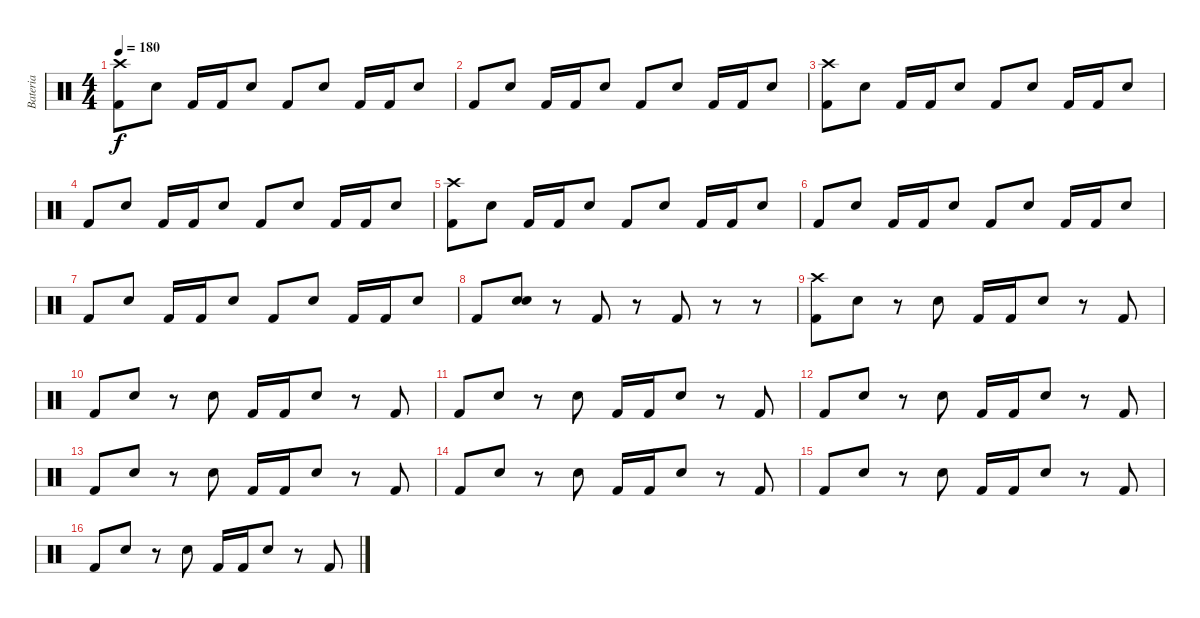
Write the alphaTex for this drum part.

\track ("Bateria" "Bateria") {instrument percussion}
\staff {score}
\articulation defaults
\ts (4 4)
\tempo 180
\clef neutral
\ks c
("Kick (hit) 2" "Crash high (hit)").8{dy f} "Electric Snare (hit)".8 "Kick (hit) 2".16 "Kick (hit) 2".16 "Electric Snare (hit)".8 "Kick (hit) 2".8 "Electric Snare (hit)".8 "Kick (hit) 2".16 "Kick (hit) 2".16 "Electric Snare (hit)".8 |
"Kick (hit) 2".8 "Electric Snare (hit)".8 "Kick (hit) 2".16 "Kick (hit) 2".16 "Electric Snare (hit)".8 "Kick (hit) 2".8 "Electric Snare (hit)".8 "Kick (hit) 2".16 "Kick (hit) 2".16 "Electric Snare (hit)".8 |
("Kick (hit) 2" "Crash high (hit)").8 "Electric Snare (hit)".8 "Kick (hit) 2".16 "Kick (hit) 2".16 "Electric Snare (hit)".8 "Kick (hit) 2".8 "Electric Snare (hit)".8 "Kick (hit) 2".16 "Kick (hit) 2".16 "Electric Snare (hit)".8 |
"Kick (hit) 2".8 "Electric Snare (hit)".8 "Kick (hit) 2".16 "Kick (hit) 2".16 "Electric Snare (hit)".8 "Kick (hit) 2".8 "Electric Snare (hit)".8 "Kick (hit) 2".16 "Kick (hit) 2".16 "Electric Snare (hit)".8 |
("Kick (hit) 2" "Crash high (hit)").8 "Electric Snare (hit)".8 "Kick (hit) 2".16 "Kick (hit) 2".16 "Electric Snare (hit)".8 "Kick (hit) 2".8 "Electric Snare (hit)".8 "Kick (hit) 2".16 "Kick (hit) 2".16 "Electric Snare (hit)".8 |
"Kick (hit) 2".8 "Electric Snare (hit)".8 "Kick (hit) 2".16 "Kick (hit) 2".16 "Electric Snare (hit)".8 "Kick (hit) 2".8 "Electric Snare (hit)".8 "Kick (hit) 2".16 "Kick (hit) 2".16 "Electric Snare (hit)".8 |
"Kick (hit) 2".8 "Electric Snare (hit)".8 "Kick (hit) 2".16 "Kick (hit) 2".16 "Electric Snare (hit)".8 "Kick (hit) 2".8 "Electric Snare (hit)".8 "Kick (hit) 2".16 "Kick (hit) 2".16 "Electric Snare (hit)".8 |
"Kick (hit) 2".8 ("Electric Snare (hit)" "Electric Snare (hit)").8 r.8 "Kick (hit) 2".8 r.8 "Kick (hit) 2".8 r.8 r.8 |
("Kick (hit) 2" "Crash high (hit)").8 "Electric Snare (hit)".8 r.8 "Electric Snare (hit)".8 "Kick (hit) 2".16 "Kick (hit) 2".16 "Electric Snare (hit)".8 r.8 "Kick (hit) 2".8 |
"Kick (hit) 2".8 "Electric Snare (hit)".8 r.8 "Electric Snare (hit)".8 "Kick (hit) 2".16 "Kick (hit) 2".16 "Electric Snare (hit)".8 r.8 "Kick (hit) 2".8 |
"Kick (hit) 2".8 "Electric Snare (hit)".8 r.8 "Electric Snare (hit)".8 "Kick (hit) 2".16 "Kick (hit) 2".16 "Electric Snare (hit)".8 r.8 "Kick (hit) 2".8 |
"Kick (hit) 2".8 "Electric Snare (hit)".8 r.8 "Electric Snare (hit)".8 "Kick (hit) 2".16 "Kick (hit) 2".16 "Electric Snare (hit)".8 r.8 "Kick (hit) 2".8 |
"Kick (hit) 2".8 "Electric Snare (hit)".8 r.8 "Electric Snare (hit)".8 "Kick (hit) 2".16 "Kick (hit) 2".16 "Electric Snare (hit)".8 r.8 "Kick (hit) 2".8 |
"Kick (hit) 2".8 "Electric Snare (hit)".8 r.8 "Electric Snare (hit)".8 "Kick (hit) 2".16 "Kick (hit) 2".16 "Electric Snare (hit)".8 r.8 "Kick (hit) 2".8 |
"Kick (hit) 2".8 "Electric Snare (hit)".8 r.8 "Electric Snare (hit)".8 "Kick (hit) 2".16 "Kick (hit) 2".16 "Electric Snare (hit)".8 r.8 "Kick (hit) 2".8 |
"Kick (hit) 2".8 "Electric Snare (hit)".8 r.8 "Electric Snare (hit)".8 "Kick (hit) 2".16 "Kick (hit) 2".16 "Electric Snare (hit)".8 r.8 "Kick (hit) 2".8
